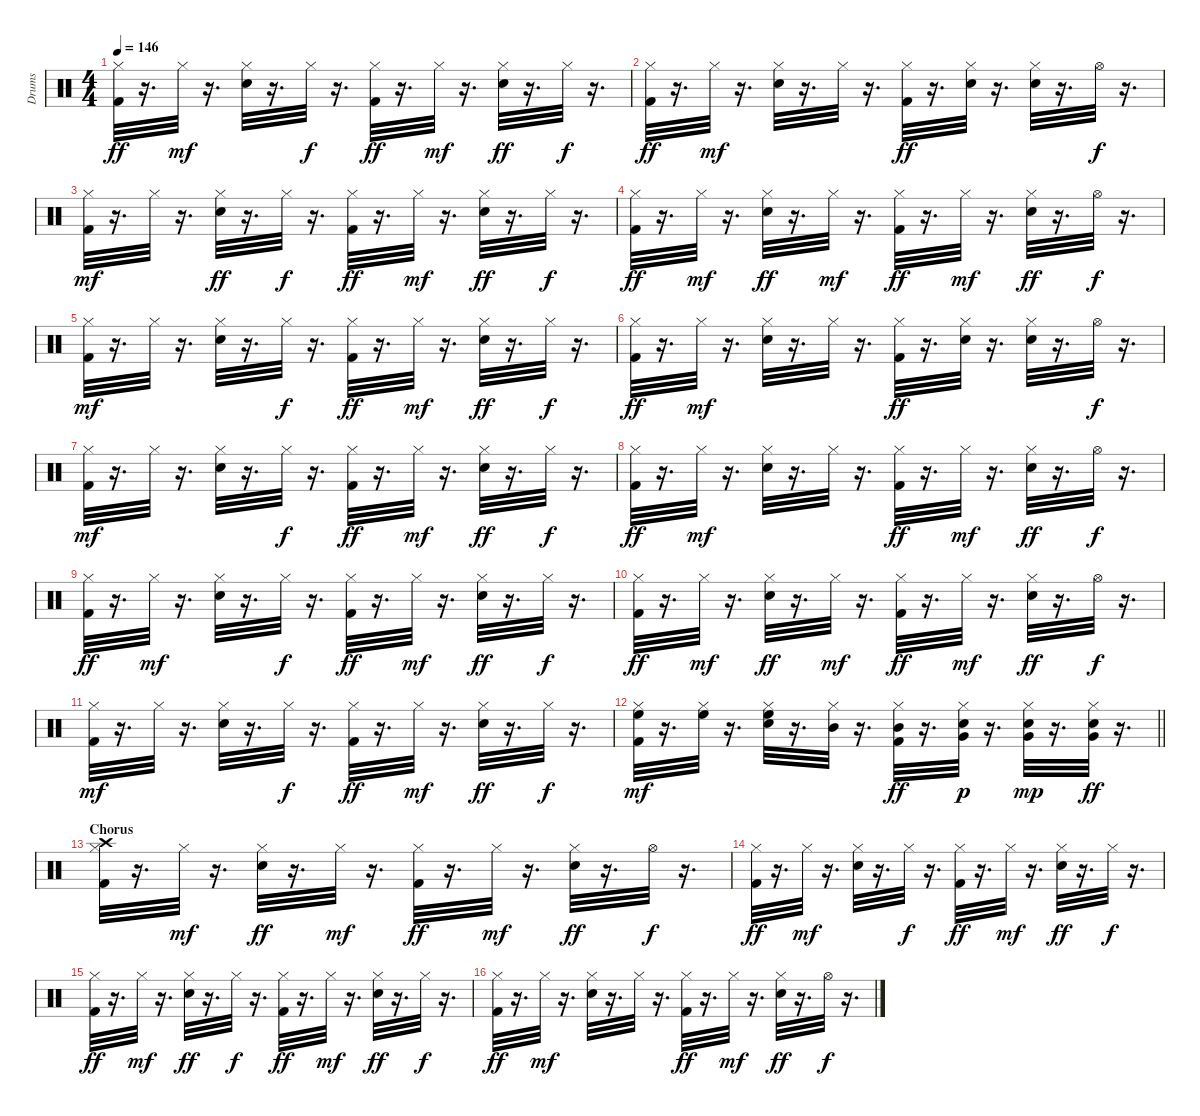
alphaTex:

\track ("Drums" "Drums") {instrument percussion}
\staff {score}
\articulation defaults
\ts (4 4)
\tempo 146
\clef neutral
\ks c
("Hi-Hat (closed)" "Kick (hit) 2").32{dy ff} r.16{d} "Hi-Hat (closed)".32{dy mf} r.16{d} ("Snare (hit) 2" "Hi-Hat (closed)").32 r.16{d} "Hi-Hat (closed)".32{dy f} r.16{d} ("Kick (hit) 2" "Hi-Hat (closed)").32{dy ff} r.16{d} "Hi-Hat (closed)".32{dy mf} r.16{d} ("Snare (hit) 2" "Hi-Hat (closed)").32{dy ff} r.16{d} "Hi-Hat (closed)".32{dy f} r.16{d} |
("Hi-Hat (closed)" "Kick (hit) 2").32{dy ff} r.16{d} "Hi-Hat (closed)".32{dy mf} r.16{d} ("Snare (hit) 2" "Hi-Hat (closed)").32 r.16{d} "Hi-Hat (closed)".32 r.16{d} ("Kick (hit) 2" "Hi-Hat (closed)").32{dy ff} r.16{d} ("Hi-Hat (closed)" "Snare (hit) 2").32 r.16{d} ("Hi-Hat (closed)" "Snare (hit) 2").32 r.16{d} "Hi-Hat (open)".32{dy f} r.16{d} |
("Kick (hit) 2" "Hi-Hat (closed)").32{dy mf} r.16{d} "Hi-Hat (closed)".32 r.16{d} ("Hi-Hat (closed)" "Snare (hit) 2").32{dy ff} r.16{d} "Hi-Hat (closed)".32{dy f} r.16{d} ("Kick (hit) 2" "Hi-Hat (closed)").32{dy ff} r.16{d} "Hi-Hat (closed)".32{dy mf} r.16{d} ("Hi-Hat (closed)" "Snare (hit) 2").32{dy ff} r.16{d} "Hi-Hat (closed)".32{dy f} r.16{d} |
("Hi-Hat (closed)" "Kick (hit) 2").32{dy ff} r.16{d} "Hi-Hat (closed)".32{dy mf} r.16{d} ("Hi-Hat (closed)" "Snare (hit) 2").32{dy ff} r.16{d} "Hi-Hat (closed)".32{dy mf} r.16{d} ("Kick (hit) 2" "Hi-Hat (closed)").32{dy ff} r.16{d} "Hi-Hat (closed)".32{dy mf} r.16{d} ("Snare (hit) 2" "Hi-Hat (closed)").32{dy ff} r.16{d} "Hi-Hat (open)".32{dy f} r.16{d} |
("Kick (hit) 2" "Hi-Hat (closed)").32{dy mf} r.16{d} "Hi-Hat (closed)".32 r.16{d} ("Snare (hit) 2" "Hi-Hat (closed)").32 r.16{d} "Hi-Hat (closed)".32{dy f} r.16{d} ("Kick (hit) 2" "Hi-Hat (closed)").32{dy ff} r.16{d} "Hi-Hat (closed)".32{dy mf} r.16{d} ("Hi-Hat (closed)" "Snare (hit) 2").32{dy ff} r.16{d} "Hi-Hat (closed)".32{dy f} r.16{d} |
("Kick (hit) 2" "Hi-Hat (closed)").32{dy ff} r.16{d} "Hi-Hat (closed)".32{dy mf} r.16{d} ("Snare (hit) 2" "Hi-Hat (closed)").32 r.16{d} "Hi-Hat (closed)".32 r.16{d} ("Kick (hit) 2" "Hi-Hat (closed)").32{dy ff} r.16{d} ("Hi-Hat (closed)" "Snare (hit) 2").32 r.16{d} ("Hi-Hat (closed)" "Snare (hit) 2").32 r.16{d} "Hi-Hat (open)".32{dy f} r.16{d} |
("Kick (hit) 2" "Hi-Hat (closed)").32{dy mf} r.16{d} "Hi-Hat (closed)".32 r.16{d} ("Snare (hit) 2" "Hi-Hat (closed)").32 r.16{d} "Hi-Hat (closed)".32{dy f} r.16{d} ("Hi-Hat (closed)" "Kick (hit) 2").32{dy ff} r.16{d} "Hi-Hat (closed)".32{dy mf} r.16{d} ("Hi-Hat (closed)" "Snare (hit) 2").32{dy ff} r.16{d} "Hi-Hat (closed)".32{dy f} r.16{d} |
("Kick (hit) 2" "Hi-Hat (closed)").32{dy ff} r.16{d} "Hi-Hat (closed)".32{dy mf} r.16{d} ("Snare (hit) 2" "Hi-Hat (closed)").32 r.16{d} "Hi-Hat (closed)".32 r.16{d} ("Hi-Hat (closed)" "Kick (hit) 2").32{dy ff} r.16{d} "Hi-Hat (closed)".32{dy mf} r.16{d} ("Snare (hit) 2" "Hi-Hat (closed)").32{dy ff} r.16{d} "Hi-Hat (open)".32{dy f} r.16{d} |
("Hi-Hat (closed)" "Kick (hit) 2").32{dy ff} r.16{d} "Hi-Hat (closed)".32{dy mf} r.16{d} ("Snare (hit) 2" "Hi-Hat (closed)").32 r.16{d} "Hi-Hat (closed)".32{dy f} r.16{d} ("Hi-Hat (closed)" "Kick (hit) 2").32{dy ff} r.16{d} "Hi-Hat (closed)".32{dy mf} r.16{d} ("Hi-Hat (closed)" "Snare (hit) 2").32{dy ff} r.16{d} "Hi-Hat (closed)".32{dy f} r.16{d} |
("Kick (hit) 2" "Hi-Hat (closed)").32{dy ff} r.16{d} "Hi-Hat (closed)".32{dy mf} r.16{d} ("Hi-Hat (closed)" "Snare (hit) 2").32{dy ff} r.16{d} "Hi-Hat (closed)".32{dy mf} r.16{d} ("Hi-Hat (closed)" "Kick (hit) 2").32{dy ff} r.16{d} "Hi-Hat (closed)".32{dy mf} r.16{d} ("Snare (hit) 2" "Hi-Hat (closed)").32{dy ff} r.16{d} "Hi-Hat (open)".32{dy f} r.16{d} |
("Kick (hit) 2" "Hi-Hat (closed)").32{dy mf} r.16{d} "Hi-Hat (closed)".32 r.16{d} ("Snare (hit) 2" "Hi-Hat (closed)").32 r.16{d} "Hi-Hat (closed)".32{dy f} r.16{d} ("Kick (hit) 2" "Hi-Hat (closed)").32{dy ff} r.16{d} "Hi-Hat (closed)".32{dy mf} r.16{d} ("Snare (hit) 2" "Hi-Hat (closed)").32{dy ff} r.16{d} "Hi-Hat (closed)".32{dy f} r.16{d} |
\barLineRight lightlight
("Kick (hit) 2" "Hi-Hat (closed)" "High Floor Tom (hit)").32{dy mf} r.16{d} ("Hi-Hat (closed)" "High Floor Tom (hit)").32 r.16{d} ("Snare (hit) 2" "Hi-Hat (closed)" "High Floor Tom (hit)").32 r.16{d} ("Hi-Hat (closed)" "Mid Tom (hit)").32 r.16{d} ("Kick (hit) 2" "Hi-Hat (closed)" "Mid Tom (hit)").32{dy ff} r.16{d} ("Hi-Hat (closed)" "Snare (hit) 2" "Very Low Tom (hit)").32{dy p} r.16{d} ("Hi-Hat (closed)" "Snare (hit) 2" "Very Low Tom (hit)").32{dy mp} r.16{d} ("Hi-Hat (closed)" "Snare (hit) 2" "Very Low Tom (hit)").32{dy ff} r.16{d} |
\section ("" "Chorus")
("Kick (hit) 2" "Hi-Hat (closed)" "Crash high (hit)").32 r.16{d} "Hi-Hat (closed)".32{dy mf} r.16{d} ("Hi-Hat (closed)" "Snare (hit) 2").32{dy ff} r.16{d} "Hi-Hat (closed)".32{dy mf} r.16{d} ("Hi-Hat (closed)" "Kick (hit) 2").32{dy ff} r.16{d} "Hi-Hat (closed)".32{dy mf} r.16{d} ("Snare (hit) 2" "Hi-Hat (closed)").32{dy ff} r.16{d} "Hi-Hat (open)".32{dy f} r.16{d} |
("Hi-Hat (closed)" "Kick (hit) 2").32{dy ff} r.16{d} "Hi-Hat (closed)".32{dy mf} r.16{d} ("Snare (hit) 2" "Hi-Hat (closed)").32 r.16{d} "Hi-Hat (closed)".32{dy f} r.16{d} ("Kick (hit) 2" "Hi-Hat (closed)").32{dy ff} r.16{d} "Hi-Hat (closed)".32{dy mf} r.16{d} ("Snare (hit) 2" "Hi-Hat (closed)").32{dy ff} r.16{d} "Hi-Hat (closed)".32{dy f} r.16{d} |
("Hi-Hat (closed)" "Kick (hit) 2").32{dy ff} r.16{d} "Hi-Hat (closed)".32{dy mf} r.16{d} ("Hi-Hat (closed)" "Snare (hit) 2").32{dy ff} r.16{d} "Hi-Hat (closed)".32{dy f} r.16{d} ("Kick (hit) 2" "Hi-Hat (closed)").32{dy ff} r.16{d} "Hi-Hat (closed)".32{dy mf} r.16{d} ("Snare (hit) 2" "Hi-Hat (closed)").32{dy ff} r.16{d} "Hi-Hat (closed)".32{dy f} r.16{d} |
("Kick (hit) 2" "Hi-Hat (closed)").32{dy ff} r.16{d} "Hi-Hat (closed)".32{dy mf} r.16{d} ("Snare (hit) 2" "Hi-Hat (closed)").32 r.16{d} "Hi-Hat (closed)".32 r.16{d} ("Kick (hit) 2" "Hi-Hat (closed)").32{dy ff} r.16{d} "Hi-Hat (closed)".32{dy mf} r.16{d} ("Hi-Hat (closed)" "Snare (hit) 2").32{dy ff} r.16{d} "Hi-Hat (open)".32{dy f} r.16{d}
